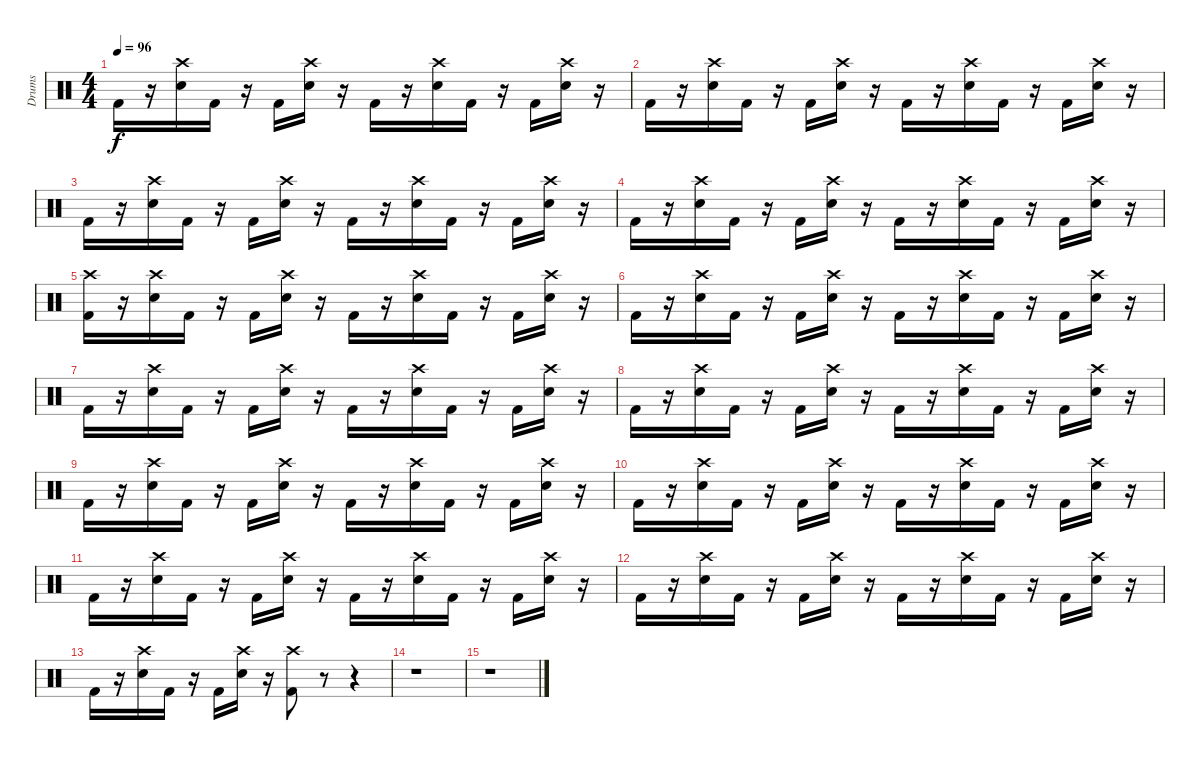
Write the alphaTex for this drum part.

\track ("Drums" "Drums") {instrument percussion}
\staff {score}
\articulation defaults
\ts (4 4)
\tempo 96
\clef neutral
\ks c "Kick (hit) 2".16{dy f}
r.16 ("Crash high (hit)" "Electric Snare (hit)").16 "Kick (hit) 2".16 r.16 "Kick (hit) 2".16 ("Crash high (hit)" "Electric Snare (hit)").16 r.16 "Kick (hit) 2".16 r.16 ("Crash high (hit)" "Electric Snare (hit)").16 "Kick (hit) 2".16 r.16 "Kick (hit) 2".16 ("Crash high (hit)" "Electric Snare (hit)").16 r.16 |
"Kick (hit) 2".16 r.16 ("Crash high (hit)" "Electric Snare (hit)").16 "Kick (hit) 2".16 r.16 "Kick (hit) 2".16 ("Crash high (hit)" "Electric Snare (hit)").16 r.16 "Kick (hit) 2".16 r.16 ("Crash high (hit)" "Electric Snare (hit)").16 "Kick (hit) 2".16 r.16 "Kick (hit) 2".16 ("Crash high (hit)" "Electric Snare (hit)").16 r.16 |
"Kick (hit) 2".16 r.16 ("Crash high (hit)" "Electric Snare (hit)").16 "Kick (hit) 2".16 r.16 "Kick (hit) 2".16 ("Crash high (hit)" "Electric Snare (hit)").16 r.16 "Kick (hit) 2".16 r.16 ("Crash high (hit)" "Electric Snare (hit)").16 "Kick (hit) 2".16 r.16 "Kick (hit) 2".16 ("Crash high (hit)" "Electric Snare (hit)").16 r.16 |
"Kick (hit) 2".16 r.16 ("Crash high (hit)" "Electric Snare (hit)").16 "Kick (hit) 2".16 r.16 "Kick (hit) 2".16 ("Crash high (hit)" "Electric Snare (hit)").16 r.16 "Kick (hit) 2".16 r.16 ("Crash high (hit)" "Electric Snare (hit)").16 "Kick (hit) 2".16 r.16 "Kick (hit) 2".16 ("Crash high (hit)" "Electric Snare (hit)").16 r.16 |
("Crash high (hit)" "Kick (hit) 2").16 r.16 ("Crash high (hit)" "Electric Snare (hit)").16 "Kick (hit) 2".16 r.16 "Kick (hit) 2".16 ("Crash high (hit)" "Electric Snare (hit)").16 r.16 "Kick (hit) 2".16 r.16 ("Crash high (hit)" "Electric Snare (hit)").16 "Kick (hit) 2".16 r.16 "Kick (hit) 2".16 ("Crash high (hit)" "Electric Snare (hit)").16 r.16 |
"Kick (hit) 2".16 r.16 ("Crash high (hit)" "Electric Snare (hit)").16 "Kick (hit) 2".16 r.16 "Kick (hit) 2".16 ("Crash high (hit)" "Electric Snare (hit)").16 r.16 "Kick (hit) 2".16 r.16 ("Crash high (hit)" "Electric Snare (hit)").16 "Kick (hit) 2".16 r.16 "Kick (hit) 2".16 ("Crash high (hit)" "Electric Snare (hit)").16 r.16 |
"Kick (hit) 2".16 r.16 ("Crash high (hit)" "Electric Snare (hit)").16 "Kick (hit) 2".16 r.16 "Kick (hit) 2".16 ("Crash high (hit)" "Electric Snare (hit)").16 r.16 "Kick (hit) 2".16 r.16 ("Crash high (hit)" "Electric Snare (hit)").16 "Kick (hit) 2".16 r.16 "Kick (hit) 2".16 ("Crash high (hit)" "Electric Snare (hit)").16 r.16 |
"Kick (hit) 2".16 r.16 ("Crash high (hit)" "Electric Snare (hit)").16 "Kick (hit) 2".16 r.16 "Kick (hit) 2".16 ("Crash high (hit)" "Electric Snare (hit)").16 r.16 "Kick (hit) 2".16 r.16 ("Crash high (hit)" "Electric Snare (hit)").16 "Kick (hit) 2".16 r.16 "Kick (hit) 2".16 ("Crash high (hit)" "Electric Snare (hit)").16 r.16 |
"Kick (hit) 2".16 r.16 ("Crash high (hit)" "Electric Snare (hit)").16 "Kick (hit) 2".16 r.16 "Kick (hit) 2".16 ("Crash high (hit)" "Electric Snare (hit)").16 r.16 "Kick (hit) 2".16 r.16 ("Crash high (hit)" "Electric Snare (hit)").16 "Kick (hit) 2".16 r.16 "Kick (hit) 2".16 ("Crash high (hit)" "Electric Snare (hit)").16 r.16 |
"Kick (hit) 2".16 r.16 ("Crash high (hit)" "Electric Snare (hit)").16 "Kick (hit) 2".16 r.16 "Kick (hit) 2".16 ("Crash high (hit)" "Electric Snare (hit)").16 r.16 "Kick (hit) 2".16 r.16 ("Crash high (hit)" "Electric Snare (hit)").16 "Kick (hit) 2".16 r.16 "Kick (hit) 2".16 ("Crash high (hit)" "Electric Snare (hit)").16 r.16 |
"Kick (hit) 2".16 r.16 ("Crash high (hit)" "Electric Snare (hit)").16 "Kick (hit) 2".16 r.16 "Kick (hit) 2".16 ("Crash high (hit)" "Electric Snare (hit)").16 r.16 "Kick (hit) 2".16 r.16 ("Crash high (hit)" "Electric Snare (hit)").16 "Kick (hit) 2".16 r.16 "Kick (hit) 2".16 ("Crash high (hit)" "Electric Snare (hit)").16 r.16 |
"Kick (hit) 2".16 r.16 ("Crash high (hit)" "Electric Snare (hit)").16 "Kick (hit) 2".16 r.16 "Kick (hit) 2".16 ("Crash high (hit)" "Electric Snare (hit)").16 r.16 "Kick (hit) 2".16 r.16 ("Crash high (hit)" "Electric Snare (hit)").16 "Kick (hit) 2".16 r.16 "Kick (hit) 2".16 ("Crash high (hit)" "Electric Snare (hit)").16 r.16 |
"Kick (hit) 2".16 r.16 ("Crash high (hit)" "Electric Snare (hit)").16 "Kick (hit) 2".16 r.16 "Kick (hit) 2".16 ("Crash high (hit)" "Electric Snare (hit)").16 r.16 ("Crash high (hit)" "Kick (hit) 2").8 r.8 r.4 |
r.1 |
r.1
